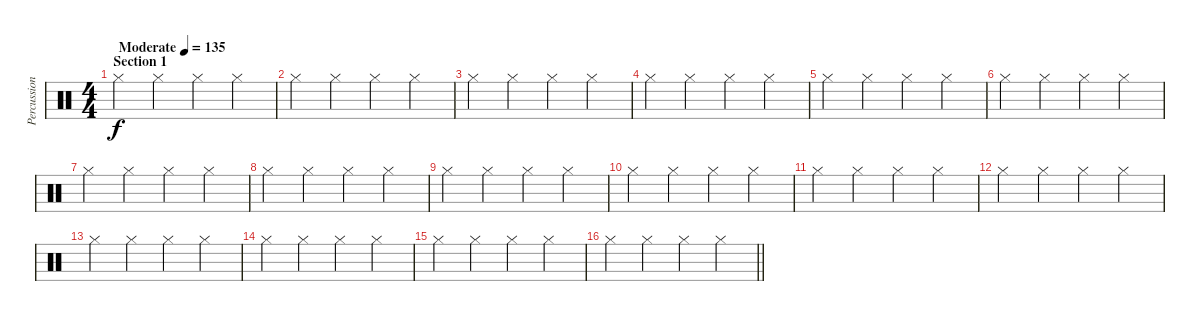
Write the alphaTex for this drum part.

\track ("Percussion" "Percussion") {instrument percussion}
\staff {score}
\articulation defaults
\ts (4 4)
\section ("" "Section 1")
\tempo (135 "Moderate")
\clef neutral
\ks c "Hi-Hat (closed)".4{dy f} "Hi-Hat (closed)".4 "Hi-Hat (closed)".4 "Hi-Hat (closed)".4
|
"Hi-Hat (closed)".4 "Hi-Hat (closed)".4 "Hi-Hat (closed)".4 "Hi-Hat (closed)".4 |
"Hi-Hat (closed)".4 "Hi-Hat (closed)".4 "Hi-Hat (closed)".4 "Hi-Hat (closed)".4 |
"Hi-Hat (closed)".4 "Hi-Hat (closed)".4 "Hi-Hat (closed)".4 "Hi-Hat (closed)".4 |
"Hi-Hat (closed)".4 "Hi-Hat (closed)".4 "Hi-Hat (closed)".4 "Hi-Hat (closed)".4 |
"Hi-Hat (closed)".4 "Hi-Hat (closed)".4 "Hi-Hat (closed)".4 "Hi-Hat (closed)".4 |
"Hi-Hat (closed)".4 "Hi-Hat (closed)".4 "Hi-Hat (closed)".4 "Hi-Hat (closed)".4 |
"Hi-Hat (closed)".4 "Hi-Hat (closed)".4 "Hi-Hat (closed)".4 "Hi-Hat (closed)".4 |
"Hi-Hat (closed)".4 "Hi-Hat (closed)".4 "Hi-Hat (closed)".4 "Hi-Hat (closed)".4 |
"Hi-Hat (closed)".4 "Hi-Hat (closed)".4 "Hi-Hat (closed)".4 "Hi-Hat (closed)".4 |
"Hi-Hat (closed)".4 "Hi-Hat (closed)".4 "Hi-Hat (closed)".4 "Hi-Hat (closed)".4 |
"Hi-Hat (closed)".4 "Hi-Hat (closed)".4 "Hi-Hat (closed)".4 "Hi-Hat (closed)".4 |
"Hi-Hat (closed)".4 "Hi-Hat (closed)".4 "Hi-Hat (closed)".4 "Hi-Hat (closed)".4 |
"Hi-Hat (closed)".4 "Hi-Hat (closed)".4 "Hi-Hat (closed)".4 "Hi-Hat (closed)".4 |
"Hi-Hat (closed)".4 "Hi-Hat (closed)".4 "Hi-Hat (closed)".4 "Hi-Hat (closed)".4 |
\barLineRight lightlight "Hi-Hat (closed)".4 "Hi-Hat (closed)".4 "Hi-Hat (closed)".4 "Hi-Hat (closed)".4
